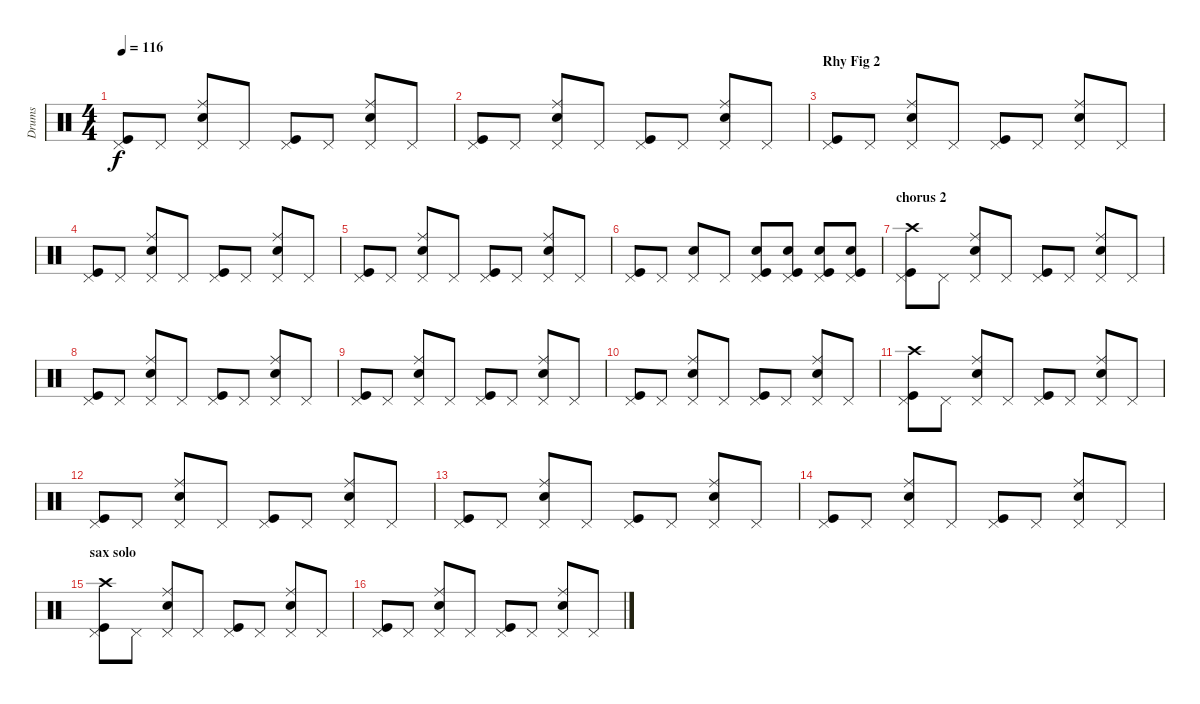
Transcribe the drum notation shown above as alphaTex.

\track ("Drums" "Drums") {instrument percussion}
\staff {score}
\articulation defaults
\ts (4 4)
\tempo 116
\clef neutral
\ks c
("Pedal Hi-Hat (hit)" "Kick (hit)").8{dy f} "Pedal Hi-Hat (hit)".8 ("Ride (middle)" "Electric Snare (hit)" "Pedal Hi-Hat (hit)").8 "Pedal Hi-Hat (hit)".8 ("Pedal Hi-Hat (hit)" "Kick (hit)").8 "Pedal Hi-Hat (hit)".8 ("Ride (middle)" "Electric Snare (hit)" "Pedal Hi-Hat (hit)").8 "Pedal Hi-Hat (hit)".8 |
("Pedal Hi-Hat (hit)" "Kick (hit)").8 "Pedal Hi-Hat (hit)".8 ("Ride (middle)" "Electric Snare (hit)" "Pedal Hi-Hat (hit)").8 "Pedal Hi-Hat (hit)".8 ("Pedal Hi-Hat (hit)" "Kick (hit)").8 "Pedal Hi-Hat (hit)".8 ("Ride (middle)" "Electric Snare (hit)" "Pedal Hi-Hat (hit)").8 "Pedal Hi-Hat (hit)".8 |
\section ("" "Rhy Fig 2")
("Pedal Hi-Hat (hit)" "Kick (hit)").8 "Pedal Hi-Hat (hit)".8 ("Ride (middle)" "Electric Snare (hit)" "Pedal Hi-Hat (hit)").8 "Pedal Hi-Hat (hit)".8 ("Pedal Hi-Hat (hit)" "Kick (hit)").8 "Pedal Hi-Hat (hit)".8 ("Ride (middle)" "Electric Snare (hit)" "Pedal Hi-Hat (hit)").8 "Pedal Hi-Hat (hit)".8 |
("Pedal Hi-Hat (hit)" "Kick (hit)").8 "Pedal Hi-Hat (hit)".8 ("Ride (middle)" "Electric Snare (hit)" "Pedal Hi-Hat (hit)").8 "Pedal Hi-Hat (hit)".8 ("Pedal Hi-Hat (hit)" "Kick (hit)").8 "Pedal Hi-Hat (hit)".8 ("Ride (middle)" "Electric Snare (hit)" "Pedal Hi-Hat (hit)").8 "Pedal Hi-Hat (hit)".8 |
("Pedal Hi-Hat (hit)" "Kick (hit)").8 "Pedal Hi-Hat (hit)".8 ("Ride (middle)" "Electric Snare (hit)" "Pedal Hi-Hat (hit)").8 "Pedal Hi-Hat (hit)".8 ("Pedal Hi-Hat (hit)" "Kick (hit)").8 "Pedal Hi-Hat (hit)".8 ("Ride (middle)" "Electric Snare (hit)" "Pedal Hi-Hat (hit)").8 "Pedal Hi-Hat (hit)".8 |
("Pedal Hi-Hat (hit)" "Kick (hit)").8 "Pedal Hi-Hat (hit)".8 ("Electric Snare (hit)" "Pedal Hi-Hat (hit)").8 "Pedal Hi-Hat (hit)".8 ("Electric Snare (hit)" "Pedal Hi-Hat (hit)" "Kick (hit)").8 ("Electric Snare (hit)" "Pedal Hi-Hat (hit)" "Kick (hit)").8 ("Electric Snare (hit)" "Pedal Hi-Hat (hit)" "Kick (hit)").8 ("Electric Snare (hit)" "Pedal Hi-Hat (hit)" "Kick (hit)").8 |
\section ("" "chorus 2")
("Crash high (hit)" "Pedal Hi-Hat (hit)" "Kick (hit)").8 "Pedal Hi-Hat (hit)".8 ("Ride (middle)" "Electric Snare (hit)" "Pedal Hi-Hat (hit)").8 "Pedal Hi-Hat (hit)".8 ("Pedal Hi-Hat (hit)" "Kick (hit)").8 "Pedal Hi-Hat (hit)".8 ("Ride (middle)" "Electric Snare (hit)" "Pedal Hi-Hat (hit)").8 "Pedal Hi-Hat (hit)".8 |
("Pedal Hi-Hat (hit)" "Kick (hit)").8 "Pedal Hi-Hat (hit)".8 ("Ride (middle)" "Electric Snare (hit)" "Pedal Hi-Hat (hit)").8 "Pedal Hi-Hat (hit)".8 ("Pedal Hi-Hat (hit)" "Kick (hit)").8 "Pedal Hi-Hat (hit)".8 ("Ride (middle)" "Electric Snare (hit)" "Pedal Hi-Hat (hit)").8 "Pedal Hi-Hat (hit)".8 |
("Pedal Hi-Hat (hit)" "Kick (hit)").8 "Pedal Hi-Hat (hit)".8 ("Ride (middle)" "Electric Snare (hit)" "Pedal Hi-Hat (hit)").8 "Pedal Hi-Hat (hit)".8 ("Pedal Hi-Hat (hit)" "Kick (hit)").8 "Pedal Hi-Hat (hit)".8 ("Ride (middle)" "Electric Snare (hit)" "Pedal Hi-Hat (hit)").8 "Pedal Hi-Hat (hit)".8 |
("Pedal Hi-Hat (hit)" "Kick (hit)").8 "Pedal Hi-Hat (hit)".8 ("Ride (middle)" "Electric Snare (hit)" "Pedal Hi-Hat (hit)").8 "Pedal Hi-Hat (hit)".8 ("Pedal Hi-Hat (hit)" "Kick (hit)").8 "Pedal Hi-Hat (hit)".8 ("Ride (middle)" "Electric Snare (hit)" "Pedal Hi-Hat (hit)").8 "Pedal Hi-Hat (hit)".8 |
("Crash high (hit)" "Pedal Hi-Hat (hit)" "Kick (hit)").8 "Pedal Hi-Hat (hit)".8 ("Ride (middle)" "Electric Snare (hit)" "Pedal Hi-Hat (hit)").8 "Pedal Hi-Hat (hit)".8 ("Pedal Hi-Hat (hit)" "Kick (hit)").8 "Pedal Hi-Hat (hit)".8 ("Ride (middle)" "Electric Snare (hit)" "Pedal Hi-Hat (hit)").8 "Pedal Hi-Hat (hit)".8 |
("Pedal Hi-Hat (hit)" "Kick (hit)").8 "Pedal Hi-Hat (hit)".8 ("Ride (middle)" "Electric Snare (hit)" "Pedal Hi-Hat (hit)").8 "Pedal Hi-Hat (hit)".8 ("Pedal Hi-Hat (hit)" "Kick (hit)").8 "Pedal Hi-Hat (hit)".8 ("Ride (middle)" "Electric Snare (hit)" "Pedal Hi-Hat (hit)").8 "Pedal Hi-Hat (hit)".8 |
("Pedal Hi-Hat (hit)" "Kick (hit)").8 "Pedal Hi-Hat (hit)".8 ("Ride (middle)" "Electric Snare (hit)" "Pedal Hi-Hat (hit)").8 "Pedal Hi-Hat (hit)".8 ("Pedal Hi-Hat (hit)" "Kick (hit)").8 "Pedal Hi-Hat (hit)".8 ("Ride (middle)" "Electric Snare (hit)" "Pedal Hi-Hat (hit)").8 "Pedal Hi-Hat (hit)".8 |
("Pedal Hi-Hat (hit)" "Kick (hit)").8 "Pedal Hi-Hat (hit)".8 ("Ride (middle)" "Electric Snare (hit)" "Pedal Hi-Hat (hit)").8 "Pedal Hi-Hat (hit)".8 ("Pedal Hi-Hat (hit)" "Kick (hit)").8 "Pedal Hi-Hat (hit)".8 ("Ride (middle)" "Electric Snare (hit)" "Pedal Hi-Hat (hit)").8 "Pedal Hi-Hat (hit)".8 |
\section ("" "sax solo")
("Crash high (hit)" "Pedal Hi-Hat (hit)" "Kick (hit)").8 "Pedal Hi-Hat (hit)".8 ("Ride (middle)" "Electric Snare (hit)" "Pedal Hi-Hat (hit)").8 "Pedal Hi-Hat (hit)".8 ("Pedal Hi-Hat (hit)" "Kick (hit)").8 "Pedal Hi-Hat (hit)".8 ("Ride (middle)" "Electric Snare (hit)" "Pedal Hi-Hat (hit)").8 "Pedal Hi-Hat (hit)".8 |
("Pedal Hi-Hat (hit)" "Kick (hit)").8 "Pedal Hi-Hat (hit)".8 ("Ride (middle)" "Electric Snare (hit)" "Pedal Hi-Hat (hit)").8 "Pedal Hi-Hat (hit)".8 ("Pedal Hi-Hat (hit)" "Kick (hit)").8 "Pedal Hi-Hat (hit)".8 ("Ride (middle)" "Electric Snare (hit)" "Pedal Hi-Hat (hit)").8 "Pedal Hi-Hat (hit)".8
